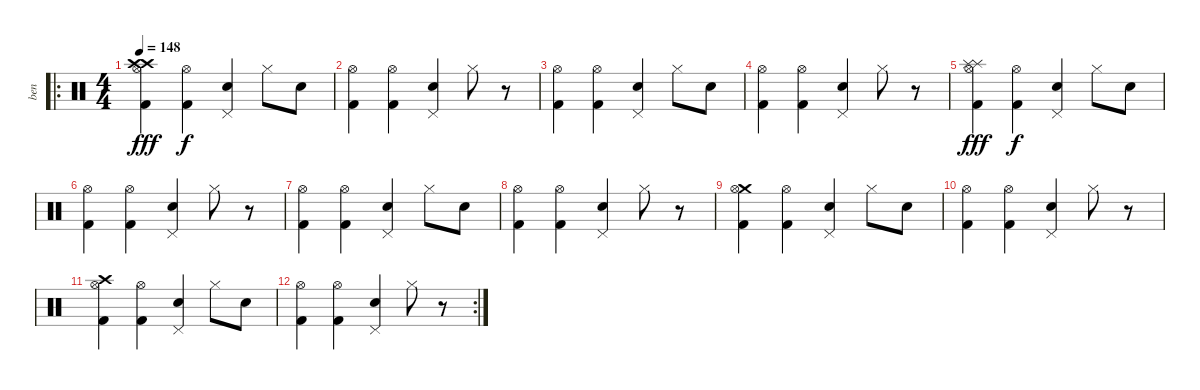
\track ("ben" "ben") {instrument percussion}
\staff {score}
\articulation defaults
\ro
\ts (4 4)
\tempo 148
\clef neutral
\ks c
("Crash high (hit)" "Crash high (hit)" "Kick (hit) 2" "Hi-Hat (open)").4{dy fff} ("Kick (hit) 2" "Hi-Hat (open)").4{dy f} ("Electric Snare (hit)" "Pedal Hi-Hat (hit)").4 "Hi-Hat (closed)".8 "Electric Snare (hit)".8 |
("Kick (hit) 2" "Hi-Hat (open)").4 ("Kick (hit) 2" "Hi-Hat (open)").4 ("Electric Snare (hit)" "Pedal Hi-Hat (hit)").4 "Hi-Hat (closed)".8 r.8 |
("Kick (hit) 2" "Hi-Hat (open)").4 ("Kick (hit) 2" "Hi-Hat (open)").4 ("Electric Snare (hit)" "Pedal Hi-Hat (hit)").4 "Hi-Hat (closed)".8 "Electric Snare (hit)".8 |
("Kick (hit) 2" "Hi-Hat (open)").4 ("Kick (hit) 2" "Hi-Hat (open)").4 ("Electric Snare (hit)" "Pedal Hi-Hat (hit)").4 "Hi-Hat (closed)".8 r.8 |
("Splash (hit)" "Splash (hit)" "Kick (hit) 2" "Hi-Hat (open)").4{dy fff} ("Kick (hit) 2" "Hi-Hat (open)").4{dy f} ("Electric Snare (hit)" "Pedal Hi-Hat (hit)").4 "Hi-Hat (closed)".8 "Electric Snare (hit)".8 |
("Kick (hit) 2" "Hi-Hat (open)").4 ("Kick (hit) 2" "Hi-Hat (open)").4 ("Electric Snare (hit)" "Pedal Hi-Hat (hit)").4 "Hi-Hat (closed)".8 r.8 |
("Kick (hit) 2" "Hi-Hat (open)").4 ("Kick (hit) 2" "Hi-Hat (open)").4 ("Electric Snare (hit)" "Pedal Hi-Hat (hit)").4 "Hi-Hat (closed)".8 "Electric Snare (hit)".8 |
("Kick (hit) 2" "Hi-Hat (open)").4 ("Kick (hit) 2" "Hi-Hat (open)").4 ("Electric Snare (hit)" "Pedal Hi-Hat (hit)").4 "Hi-Hat (closed)".8 r.8 |
("Crash medium (hit)" "Kick (hit) 2" "Hi-Hat (open)").4 ("Kick (hit) 2" "Hi-Hat (open)").4 ("Electric Snare (hit)" "Pedal Hi-Hat (hit)").4 "Hi-Hat (closed)".8 "Electric Snare (hit)".8 |
("Kick (hit) 2" "Hi-Hat (open)").4 ("Kick (hit) 2" "Hi-Hat (open)").4 ("Electric Snare (hit)" "Pedal Hi-Hat (hit)").4 "Hi-Hat (closed)".8 r.8 |
("Crash high (hit)" "Kick (hit) 2" "Hi-Hat (open)").4 ("Kick (hit) 2" "Hi-Hat (open)").4 ("Electric Snare (hit)" "Pedal Hi-Hat (hit)").4 "Hi-Hat (closed)".8 "Electric Snare (hit)".8 |
\rc 2
("Kick (hit) 2" "Hi-Hat (open)").4 ("Kick (hit) 2" "Hi-Hat (open)").4 ("Electric Snare (hit)" "Pedal Hi-Hat (hit)").4 "Hi-Hat (closed)".8 r.8
